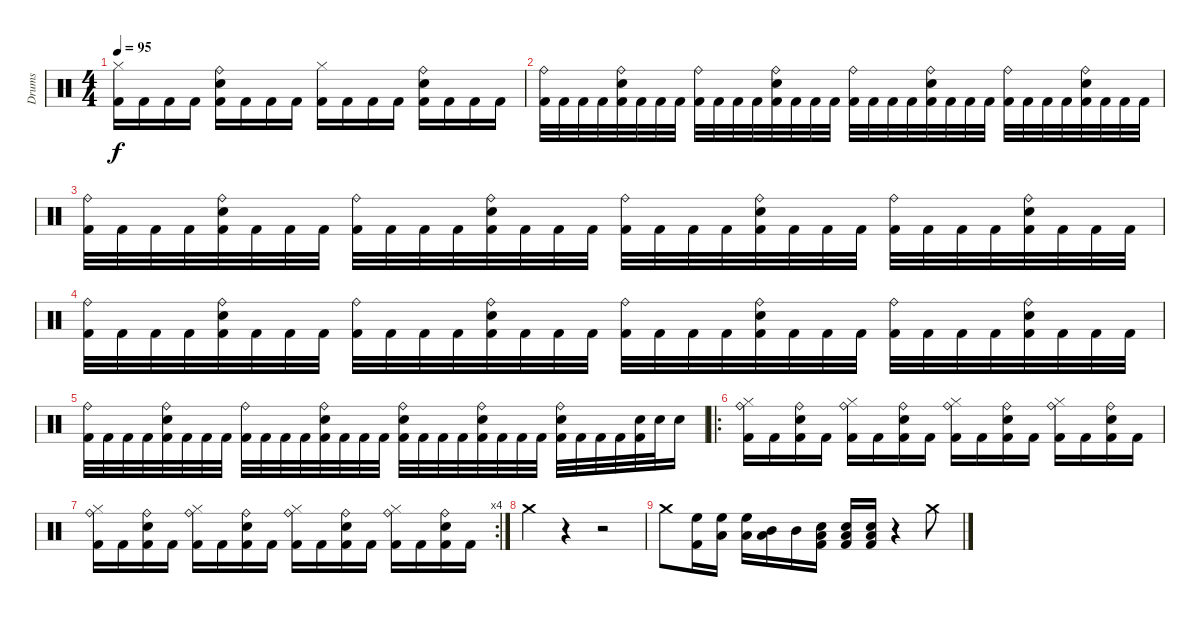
\track ("Drums" "Drums") {instrument percussion}
\staff {score}
\articulation defaults
\ts (4 4)
\tempo 95
\clef neutral
\ks c
("Kick (hit) 2" "Hi-Hat (closed)").16{dy f} "Kick (hit) 2".16 "Kick (hit) 2".16 "Kick (hit) 2".16 ("Kick (hit) 2" "Snare (hit) 2" "Ride (bell)").16 "Kick (hit) 2".16 "Kick (hit) 2".16 "Kick (hit) 2".16 ("Kick (hit) 2" "Hi-Hat (closed)").16 "Kick (hit) 2".16 "Kick (hit) 2".16 "Kick (hit) 2".16 ("Kick (hit) 2" "Snare (hit) 2" "Ride (bell)").16 "Kick (hit) 2".16 "Kick (hit) 2".16 "Kick (hit) 2".16 |
("Kick (hit) 2" "Ride (bell)").32 "Kick (hit) 2".32 "Kick (hit) 2".32 "Kick (hit) 2".32 ("Kick (hit) 2" "Snare (hit) 2" "Ride (bell)").32 "Kick (hit) 2".32 "Kick (hit) 2".32 "Kick (hit) 2".32 ("Kick (hit) 2" "Ride (bell)").32 "Kick (hit) 2".32 "Kick (hit) 2".32 "Kick (hit) 2".32 ("Kick (hit) 2" "Snare (hit) 2" "Ride (bell)").32 "Kick (hit) 2".32 "Kick (hit) 2".32 "Kick (hit) 2".32 ("Kick (hit) 2" "Ride (bell)").32 "Kick (hit) 2".32 "Kick (hit) 2".32 "Kick (hit) 2".32 ("Kick (hit) 2" "Snare (hit) 2" "Ride (bell)").32 "Kick (hit) 2".32 "Kick (hit) 2".32 "Kick (hit) 2".32 ("Kick (hit) 2" "Ride (bell)").32 "Kick (hit) 2".32 "Kick (hit) 2".32 "Kick (hit) 2".32 ("Kick (hit) 2" "Snare (hit) 2" "Ride (bell)").32 "Kick (hit) 2".32 "Kick (hit) 2".32 "Kick (hit) 2".32 |
("Kick (hit) 2" "Ride (bell)").32 "Kick (hit) 2".32 "Kick (hit) 2".32 "Kick (hit) 2".32 ("Kick (hit) 2" "Snare (hit) 2" "Ride (bell)").32 "Kick (hit) 2".32 "Kick (hit) 2".32 "Kick (hit) 2".32 ("Kick (hit) 2" "Ride (bell)").32 "Kick (hit) 2".32 "Kick (hit) 2".32 "Kick (hit) 2".32 ("Kick (hit) 2" "Snare (hit) 2" "Ride (bell)").32 "Kick (hit) 2".32 "Kick (hit) 2".32 "Kick (hit) 2".32 ("Kick (hit) 2" "Ride (bell)").32 "Kick (hit) 2".32 "Kick (hit) 2".32 "Kick (hit) 2".32 ("Kick (hit) 2" "Snare (hit) 2" "Ride (bell)").32 "Kick (hit) 2".32 "Kick (hit) 2".32 "Kick (hit) 2".32 ("Kick (hit) 2" "Ride (bell)").32 "Kick (hit) 2".32 "Kick (hit) 2".32 "Kick (hit) 2".32 ("Kick (hit) 2" "Snare (hit) 2" "Ride (bell)").32 "Kick (hit) 2".32 "Kick (hit) 2".32 "Kick (hit) 2".32 |
("Kick (hit) 2" "Ride (bell)").32 "Kick (hit) 2".32 "Kick (hit) 2".32 "Kick (hit) 2".32 ("Kick (hit) 2" "Snare (hit) 2" "Ride (bell)").32 "Kick (hit) 2".32 "Kick (hit) 2".32 "Kick (hit) 2".32 ("Kick (hit) 2" "Ride (bell)").32 "Kick (hit) 2".32 "Kick (hit) 2".32 "Kick (hit) 2".32 ("Kick (hit) 2" "Snare (hit) 2" "Ride (bell)").32 "Kick (hit) 2".32 "Kick (hit) 2".32 "Kick (hit) 2".32 ("Kick (hit) 2" "Ride (bell)").32 "Kick (hit) 2".32 "Kick (hit) 2".32 "Kick (hit) 2".32 ("Kick (hit) 2" "Snare (hit) 2" "Ride (bell)").32 "Kick (hit) 2".32 "Kick (hit) 2".32 "Kick (hit) 2".32 ("Kick (hit) 2" "Ride (bell)").32 "Kick (hit) 2".32 "Kick (hit) 2".32 "Kick (hit) 2".32 ("Kick (hit) 2" "Snare (hit) 2" "Ride (bell)").32 "Kick (hit) 2".32 "Kick (hit) 2".32 "Kick (hit) 2".32 |
("Kick (hit) 2" "Ride (bell)").32 "Kick (hit) 2".32 "Kick (hit) 2".32 "Kick (hit) 2".32 ("Kick (hit) 2" "Snare (hit) 2" "Ride (bell)").32 "Kick (hit) 2".32 "Kick (hit) 2".32 "Kick (hit) 2".32 ("Kick (hit) 2" "Ride (bell)").32 "Kick (hit) 2".32 "Kick (hit) 2".32 "Kick (hit) 2".32 ("Kick (hit) 2" "Snare (hit) 2" "Ride (bell)").32 "Kick (hit) 2".32 "Kick (hit) 2".32 "Kick (hit) 2".32 ("Kick (hit) 2" "Snare (hit) 2" "Ride (bell)").32 "Kick (hit) 2".32 "Kick (hit) 2".32 "Kick (hit) 2".32 ("Kick (hit) 2" "Snare (hit) 2" "Ride (bell)").32 "Kick (hit) 2".32 "Kick (hit) 2".32 "Kick (hit) 2".32 ("Kick (hit) 2" "Snare (hit) 2" "Ride (bell)").32 "Kick (hit) 2".32 "Kick (hit) 2".32 "Kick (hit) 2".32 ("Kick (hit) 2" "Snare (hit) 2").32 "Snare (hit) 2".32 "Snare (hit) 2".16 |
\ro
("Kick (hit) 2" "Hi-Hat (closed)" "Ride (bell)").16 "Kick (hit) 2".16 ("Kick (hit) 2" "Snare (hit) 2" "Ride (bell)").16 "Kick (hit) 2".16 ("Kick (hit) 2" "Hi-Hat (closed)" "Ride (bell)").16 "Kick (hit) 2".16 ("Kick (hit) 2" "Snare (hit) 2" "Ride (bell)").16 "Kick (hit) 2".16 ("Kick (hit) 2" "Hi-Hat (closed)" "Ride (bell)").16 "Kick (hit) 2".16 ("Kick (hit) 2" "Snare (hit) 2" "Ride (bell)").16 "Kick (hit) 2".16 ("Kick (hit) 2" "Hi-Hat (closed)" "Ride (bell)").16 "Kick (hit) 2".16 ("Kick (hit) 2" "Snare (hit) 2" "Ride (bell)").16 "Kick (hit) 2".16 |
\rc 4
("Kick (hit) 2" "Hi-Hat (closed)" "Ride (bell)").16 "Kick (hit) 2".16 ("Kick (hit) 2" "Snare (hit) 2" "Ride (bell)").16 "Kick (hit) 2".16 ("Kick (hit) 2" "Hi-Hat (closed)" "Ride (bell)").16 "Kick (hit) 2".16 ("Kick (hit) 2" "Snare (hit) 2" "Ride (bell)").16 "Kick (hit) 2".16 ("Kick (hit) 2" "Hi-Hat (closed)" "Ride (bell)").16 "Kick (hit) 2".16 ("Kick (hit) 2" "Snare (hit) 2" "Ride (bell)").16 "Kick (hit) 2".16 ("Kick (hit) 2" "Hi-Hat (closed)" "Ride (bell)").16 "Kick (hit) 2".16 ("Kick (hit) 2" "Snare (hit) 2" "Ride (bell)").16 "Kick (hit) 2".16 |
"Crash medium (hit)".4 r.4 r.2 |
"Crash medium (hit)".8 ("Kick (hit) 2" "High Floor Tom (hit)").16 ("High Floor Tom (hit)" "Low Tom (hit)").16 ("High Floor Tom (hit)" "Low Tom (hit)").16 ("Low Tom (hit)" "Mid Tom (hit)").16 "Mid Tom (hit)".16 ("Kick (hit) 2" "Snare (hit) 2" "Low Tom (hit)").16 ("Kick (hit) 2" "Snare (hit) 2" "Low Tom (hit)").16 ("Kick (hit) 2" "Snare (hit) 2" "Low Tom (hit)").16 r.4 "Crash medium (hit)".8
